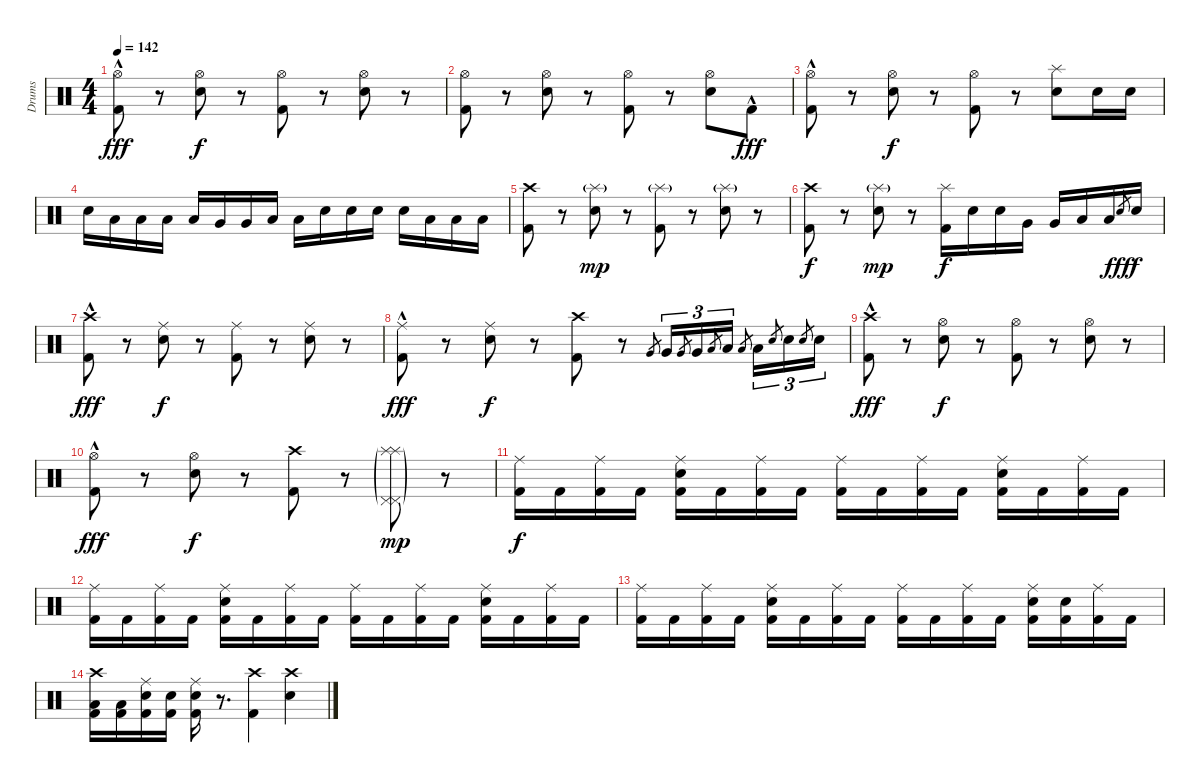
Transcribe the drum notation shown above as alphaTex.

\track ("Drums" "Drums") {instrument percussion}
\staff {score}
\articulation defaults
\ts (4 4)
\tempo 142
\clef neutral
\ks c
("Hi-Hat (open)" "Kick (hit) 2"{hac}).8{dy fff} r.8 ("Hi-Hat (open)" "Electric Snare (hit)").8{dy f} r.8 ("Hi-Hat (open)" "Kick (hit) 2").8 r.8 ("Hi-Hat (open)" "Electric Snare (hit)").8 r.8 |
("Hi-Hat (open)" "Kick (hit) 2").8 r.8 ("Hi-Hat (open)" "Electric Snare (hit)").8 r.8 ("Hi-Hat (open)" "Kick (hit) 2").8 r.8 ("Hi-Hat (open)" "Electric Snare (hit)").8 "Kick (hit) 2"{hac}.8{dy fff} |
("Hi-Hat (open)" "Kick (hit) 2"{hac}).8 r.8 ("Hi-Hat (open)" "Electric Snare (hit)").8{dy f} r.8 ("Hi-Hat (open)" "Kick (hit) 2").8 r.8 ("Splash (hit)" "Electric Snare (hit)").8 "Electric Snare (hit)".16 "Snare (hit) 2".16 |
"Snare (hit) 2".16 "Low Tom (hit)".16 "Low Tom (hit)".16 "Low Floor Tom (hit)".16 "Low Floor Tom (hit)".16 "Very Low Tom (hit)".16 "Very Low Tom (hit)".16 "Low Floor Tom (hit)".16 "Low Floor Tom (hit)".16 "Electric Snare (hit)".16 "Electric Snare (hit)".16 "Snare (hit) 2".16 "Snare (hit) 2".16 "Low Floor Tom (hit)".16 "Low Floor Tom (hit)".16 "Low Floor Tom (hit)".16 |
("Crash high (hit)" "Kick (hit) 2").8 r.8 ("Splash (hit)"{g} "Electric Snare (hit)").8{dy mp} r.8 ("Splash (hit)"{g} "Kick (hit) 2").8 r.8 ("Splash (hit)"{g} "Electric Snare (hit)").8 r.8 |
("Crash high (hit)" "Kick (hit) 2").8{dy f} r.8 ("Splash (hit)"{g} "Electric Snare (hit)").8{dy mp} r.8 ("Splash (hit)" "Kick (hit) 2").16{dy f} "Electric Snare (hit)".16 "Electric Snare (hit)".16 "Very Low Tom (hit)".16 "Very Low Tom (hit)".16 "Low Floor Tom (hit)".16 "Low Floor Tom (hit)".16 "Snare (hit) 2".8{gr dy fff} "Snare (hit) 2".16{dy f} |
("Crash high (hit)" "Kick (hit) 2"{hac}).8{dy fff} r.8 ("Ride (middle)" "Electric Snare (hit)").8{dy f} r.8 ("Ride (middle)" "Kick (hit) 2").8 r.8 ("Ride (middle)" "Electric Snare (hit)").8 r.8 |
("Ride (middle)" "Kick (hit) 2"{hac}).8{dy fff} r.8 ("Ride (middle)" "Electric Snare (hit)").8{dy f} r.8 ("Crash high (hit)" "Kick (hit) 2").8 r.8 "Very Low Tom (hit)".8{gr} "Very Low Tom (hit)".16{tu (3 2)} "Very Low Tom (hit)".8{gr} "Very Low Tom (hit)".16{tu (3 2)} "Low Floor Tom (hit)".8{gr} "Low Floor Tom (hit)".16{tu (3 2)} "Low Floor Tom (hit)".8{gr beam splitsecondary} "Low Floor Tom (hit)".16{tu (3 2)} "Snare (hit) 2".8{gr} "Snare (hit) 2".16{tu (3 2)} "Snare (hit) 2".8{gr} "Snare (hit) 2".16{tu (3 2)} |
("Crash high (hit)" "Kick (hit) 2"{hac}).8{dy fff} r.8 ("Hi-Hat (open)" "Electric Snare (hit)").8{dy f} r.8 ("Hi-Hat (open)" "Kick (hit) 2").8 r.8 ("Hi-Hat (open)" "Electric Snare (hit)").8 r.8 |
("Hi-Hat (open)" "Kick (hit) 2"{hac}).8{dy fff} r.8 ("Hi-Hat (open)" "Electric Snare (hit)").8{dy f} r.8 ("Crash high (hit)" "Kick (hit) 2").8 r.8 ("Splash (hit)"{g} "Pedal Hi-Hat (hit)"{g} "Pedal Hi-Hat (hit)"{g} "Splash (hit)"{g}).8{dy mp} r.8 |
("Ride (middle)" "Kick (hit) 2").16{dy f} "Kick (hit) 2".16 ("Ride (middle)" "Kick (hit) 2").16 "Kick (hit) 2".16 ("Ride (middle)" "Electric Snare (hit)" "Kick (hit) 2").16 "Kick (hit) 2".16 ("Ride (middle)" "Kick (hit) 2").16 "Kick (hit) 2".16 ("Ride (middle)" "Kick (hit) 2").16 "Kick (hit) 2".16 ("Ride (middle)" "Kick (hit) 2").16 "Kick (hit) 2".16 ("Ride (middle)" "Electric Snare (hit)" "Kick (hit) 2").16 "Kick (hit) 2".16 ("Ride (middle)" "Kick (hit) 2").16 "Kick (hit) 2".16 |
("Ride (middle)" "Kick (hit) 2").16 "Kick (hit) 2".16 ("Ride (middle)" "Kick (hit) 2").16 "Kick (hit) 2".16 ("Ride (middle)" "Electric Snare (hit)" "Kick (hit) 2").16 "Kick (hit) 2".16 ("Ride (middle)" "Kick (hit) 2").16 "Kick (hit) 2".16 ("Ride (middle)" "Kick (hit) 2").16 "Kick (hit) 2".16 ("Ride (middle)" "Kick (hit) 2").16 "Kick (hit) 2".16 ("Ride (middle)" "Electric Snare (hit)" "Kick (hit) 2").16 "Kick (hit) 2".16 ("Ride (middle)" "Kick (hit) 2").16 "Kick (hit) 2".16 |
("Ride (middle)" "Kick (hit) 2").16 "Kick (hit) 2".16 ("Ride (middle)" "Kick (hit) 2").16 "Kick (hit) 2".16 ("Ride (middle)" "Electric Snare (hit)" "Kick (hit) 2").16 "Kick (hit) 2".16 ("Ride (middle)" "Kick (hit) 2").16 "Kick (hit) 2".16 ("Ride (middle)" "Kick (hit) 2").16 "Kick (hit) 2".16 ("Ride (middle)" "Kick (hit) 2").16 "Kick (hit) 2".16 ("Ride (middle)" "Electric Snare (hit)" "Kick (hit) 2").16 ("Electric Snare (hit)" "Kick (hit) 2").16 ("Ride (middle)" "Kick (hit) 2").16 "Kick (hit) 2".16 |
("Crash high (hit)" "Low Floor Tom (hit)" "Kick (hit) 2").16 ("Low Floor Tom (hit)" "Kick (hit) 2").16 ("Ride (middle)" "Electric Snare (hit)" "Kick (hit) 2").16 ("Electric Snare (hit)" "Kick (hit) 2").16 ("Ride (middle)" "Snare (hit) 2" "Kick (hit) 2").16 r.8{d} ("Crash high (hit)" "Kick (hit) 2").4 ("Crash high (hit)" "Electric Snare (hit)").4
